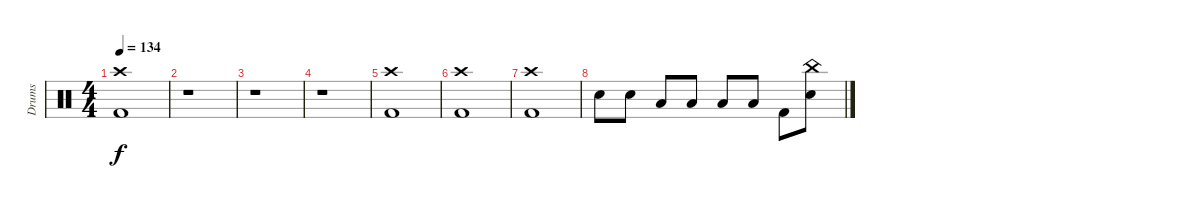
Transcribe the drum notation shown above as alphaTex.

\track ("Drums" "Drums") {instrument percussion}
\staff {score}
\articulation defaults
\ts (4 4)
\tempo 134
\clef neutral
\ks c
("Crash high (hit)" "Kick (hit) 2").1{dy f} |
r.1 |
r.1 |
r.1 |
("Crash high (hit)" "Kick (hit) 2").1 |
("Crash high (hit)" "Kick (hit) 2").1 |
("Crash high (hit)" "Kick (hit) 2").1 |
"Electric Snare (hit)".8 "Electric Snare (hit)".8 "Low Tom (hit)".8 "Low Tom (hit)".8 "Low Floor Tom (hit)".8 "Low Floor Tom (hit)".8 "Kick (hit) 2".8 ("China (hit)" "Electric Snare (hit)").8
